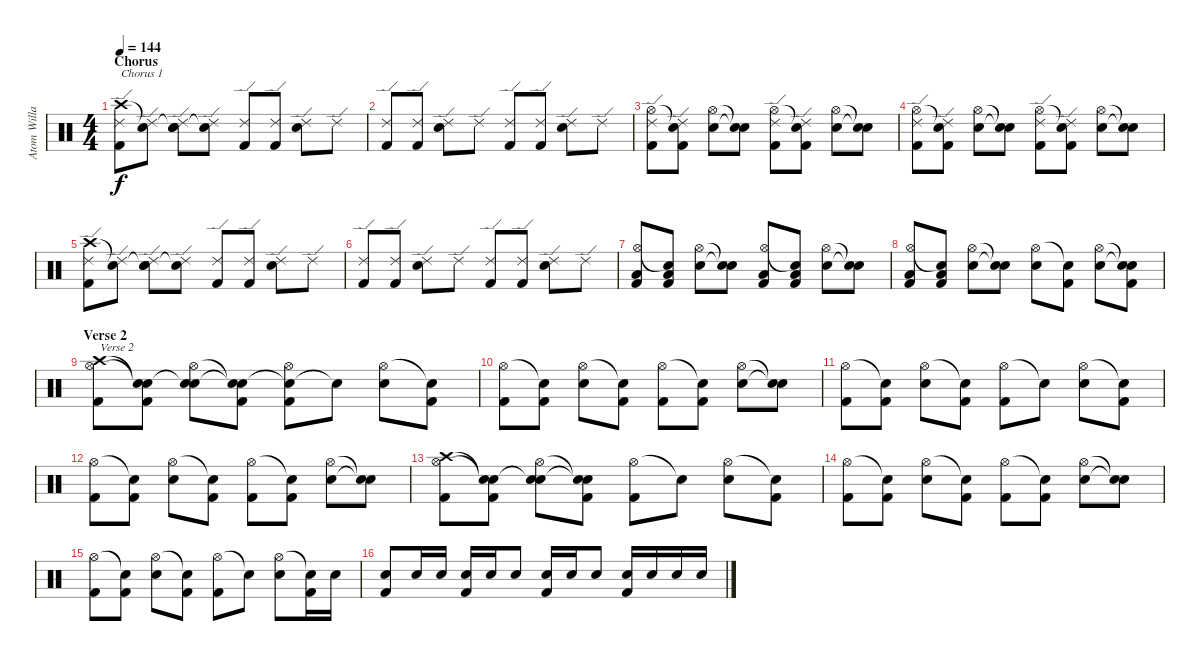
\track ("Atom Willard (Drums)" "Atom Willa") {instrument percussion}
\staff {score}
\articulation defaults
\ts (4 4)
\section ("" "Chorus")
\tempo 144
\clef neutral
\ks c
("Crash high (hit)" "Ride (edge) 2" "Kick (hit) 2").8{txt "Chorus 1" dy f} ("Snare (hit)"{t} "Ride (edge) 2").8 ("Snare (hit)"{t} "Ride (edge) 2" "Electric Snare (hit)").8 ("Snare (hit)"{t} "Ride (edge) 2").8 ("Ride (edge) 2" "Kick (hit) 2").8 ("Ride (edge) 2" "Kick (hit) 2").8 ("Ride (edge) 2" "Electric Snare (hit)").8 "Ride (edge) 2".8 |
("Ride (edge) 2" "Kick (hit) 2").8 ("Ride (edge) 2" "Kick (hit) 2").8 ("Ride (edge) 2" "Electric Snare (hit)").8 "Ride (edge) 2".8 ("Ride (edge) 2" "Kick (hit) 2").8 ("Ride (edge) 2" "Kick (hit) 2").8 ("Ride (edge) 2" "Electric Snare (hit)").8 "Ride (edge) 2".8 |
("Hi-Hat (open)" "Ride (edge) 2" "Kick (hit) 2").8 ("Snare (hit)"{t} "Ride (edge) 2" "Kick (hit) 2").8 ("Hi-Hat (open)" "Electric Snare (hit)").8 ("Snare (hit)"{t} "Snare (hit)"{t}).8 ("Hi-Hat (open)" "Ride (edge) 2" "Kick (hit) 2").8 ("Snare (hit)"{t} "Ride (edge) 2" "Kick (hit) 2").8 ("Hi-Hat (open)" "Electric Snare (hit)").8 ("Snare (hit)"{t} "Snare (hit)"{t}).8 |
("Hi-Hat (open)" "Ride (edge) 2" "Kick (hit) 2").8 ("Snare (hit)"{t} "Ride (edge) 2" "Kick (hit) 2").8 ("Hi-Hat (open)" "Electric Snare (hit)").8 ("Snare (hit)"{t} "Snare (hit)"{t}).8 ("Hi-Hat (open)" "Ride (edge) 2" "Kick (hit) 2").8 ("Snare (hit)"{t} "Ride (edge) 2" "Kick (hit) 2").8 ("Hi-Hat (open)" "Electric Snare (hit)").8 ("Snare (hit)"{t} "Snare (hit)"{t}).8 |
("Crash high (hit)" "Ride (edge) 2" "Kick (hit) 2").8 ("Snare (hit)"{t} "Ride (edge) 2").8 ("Snare (hit)"{t} "Ride (edge) 2" "Electric Snare (hit)").8 ("Snare (hit)"{t} "Ride (edge) 2").8 ("Ride (edge) 2" "Kick (hit) 2").8 ("Ride (edge) 2" "Kick (hit) 2").8 ("Ride (edge) 2" "Electric Snare (hit)").8 "Ride (edge) 2".8 |
("Ride (edge) 2" "Kick (hit) 2").8 ("Ride (edge) 2" "Kick (hit) 2").8 ("Ride (edge) 2" "Electric Snare (hit)").8 "Ride (edge) 2".8 ("Ride (edge) 2" "Kick (hit) 2").8 ("Ride (edge) 2" "Kick (hit) 2").8 ("Ride (edge) 2" "Electric Snare (hit)").8 "Ride (edge) 2".8 |
("Hi-Hat (open)" "Low Tom (hit)" "Kick (hit) 2").8 ("Snare (hit)"{t} "Low Tom (hit)" "Kick (hit) 2").8 ("Hi-Hat (open)" "Electric Snare (hit)").8 ("Snare (hit)"{t} "Snare (hit)"{t}).8 ("Hi-Hat (open)" "Low Tom (hit)" "Kick (hit) 2").8 ("Snare (hit)"{t} "Low Tom (hit)" "Kick (hit) 2").8 ("Hi-Hat (open)" "Electric Snare (hit)").8 ("Snare (hit)"{t} "Snare (hit)"{t}).8 |
("Hi-Hat (open)" "Low Tom (hit)" "Kick (hit) 2").8 ("Snare (hit)"{t} "Low Tom (hit)" "Kick (hit) 2").8 ("Hi-Hat (open)" "Electric Snare (hit)").8 ("Snare (hit)"{t} "Snare (hit)"{t}).8 ("Hi-Hat (open)" "Electric Snare (hit)").8 ("Snare (hit)"{t} "Kick (hit) 2").8 ("Hi-Hat (open)" "Electric Snare (hit)").8 ("Snare (hit)"{t} "Snare (hit)"{t} "Kick (hit) 2").8 |
\section ("" "Verse 2")
("Crash high (hit)" "Hi-Hat (open)" "Kick (hit) 2").8{txt "Verse 2"} ("Snare (hit)"{t} "Snare (hit)"{t} "Kick (hit) 2").8 ("Snare (hit)"{t} "Hi-Hat (open)" "Electric Snare (hit)").8 ("Snare (hit)"{t} "Snare (hit)"{t} "Kick (hit) 2").8 ("Snare (hit)"{t} "Hi-Hat (open)" "Kick (hit) 2").8 "Snare (hit)"{t}.8 ("Hi-Hat (open)" "Electric Snare (hit)").8 ("Snare (hit)"{t} "Kick (hit) 2").8 |
("Hi-Hat (open)" "Kick (hit) 2").8 ("Snare (hit)"{t} "Kick (hit) 2").8 ("Hi-Hat (open)" "Electric Snare (hit)").8 ("Snare (hit)"{t} "Kick (hit) 2").8 ("Hi-Hat (open)" "Kick (hit) 2").8 ("Snare (hit)"{t} "Kick (hit) 2").8 ("Hi-Hat (open)" "Electric Snare (hit)").8 ("Snare (hit)"{t} "Snare (hit)"{t}).8 |
("Hi-Hat (open)" "Kick (hit) 2").8 ("Snare (hit)"{t} "Kick (hit) 2").8 ("Hi-Hat (open)" "Electric Snare (hit)").8 ("Snare (hit)"{t} "Kick (hit) 2").8 ("Hi-Hat (open)" "Kick (hit) 2").8 "Snare (hit)"{t}.8 ("Hi-Hat (open)" "Electric Snare (hit)").8 ("Snare (hit)"{t} "Kick (hit) 2").8 |
("Hi-Hat (open)" "Kick (hit) 2").8 ("Snare (hit)"{t} "Kick (hit) 2").8 ("Hi-Hat (open)" "Electric Snare (hit)").8 ("Snare (hit)"{t} "Kick (hit) 2").8 ("Hi-Hat (open)" "Kick (hit) 2").8 ("Snare (hit)"{t} "Kick (hit) 2").8 ("Hi-Hat (open)" "Electric Snare (hit)").8 ("Snare (hit)"{t} "Snare (hit)"{t}).8 |
("Crash high (hit)" "Hi-Hat (open)" "Kick (hit) 2").8 ("Snare (hit)"{t} "Snare (hit)"{t} "Kick (hit) 2").8 ("Snare (hit)"{t} "Hi-Hat (open)" "Electric Snare (hit)").8 ("Snare (hit)"{t} "Snare (hit)"{t} "Kick (hit) 2").8 ("Hi-Hat (open)" "Kick (hit) 2").8 "Snare (hit)"{t}.8 ("Hi-Hat (open)" "Electric Snare (hit)").8 ("Snare (hit)"{t} "Kick (hit) 2").8 |
("Hi-Hat (open)" "Kick (hit) 2").8 ("Snare (hit)"{t} "Kick (hit) 2").8 ("Hi-Hat (open)" "Electric Snare (hit)").8 ("Snare (hit)"{t} "Kick (hit) 2").8 ("Hi-Hat (open)" "Kick (hit) 2").8 ("Snare (hit)"{t} "Kick (hit) 2").8 ("Hi-Hat (open)" "Electric Snare (hit)").8 ("Snare (hit)"{t} "Snare (hit)"{t}).8 |
("Hi-Hat (open)" "Kick (hit) 2").8 ("Snare (hit)"{t} "Kick (hit) 2").8 ("Hi-Hat (open)" "Electric Snare (hit)").8 ("Snare (hit)"{t} "Kick (hit) 2").8 ("Hi-Hat (open)" "Kick (hit) 2").8 "Snare (hit)"{t}.8 ("Hi-Hat (open)" "Electric Snare (hit)").8 ("Snare (hit)"{t} "Kick (hit) 2").16 "Electric Snare (hit)".16 |
("Electric Snare (hit)" "Kick (hit) 2").8 "Electric Snare (hit)".16 "Electric Snare (hit)".16 ("Electric Snare (hit)" "Kick (hit) 2").16 "Electric Snare (hit)".16 "Electric Snare (hit)".8 ("Electric Snare (hit)" "Kick (hit) 2").16 "Electric Snare (hit)".16 "Electric Snare (hit)".8 ("Electric Snare (hit)" "Kick (hit) 2").16 "Electric Snare (hit)".16 "Electric Snare (hit)".16 "Electric Snare (hit)".16
